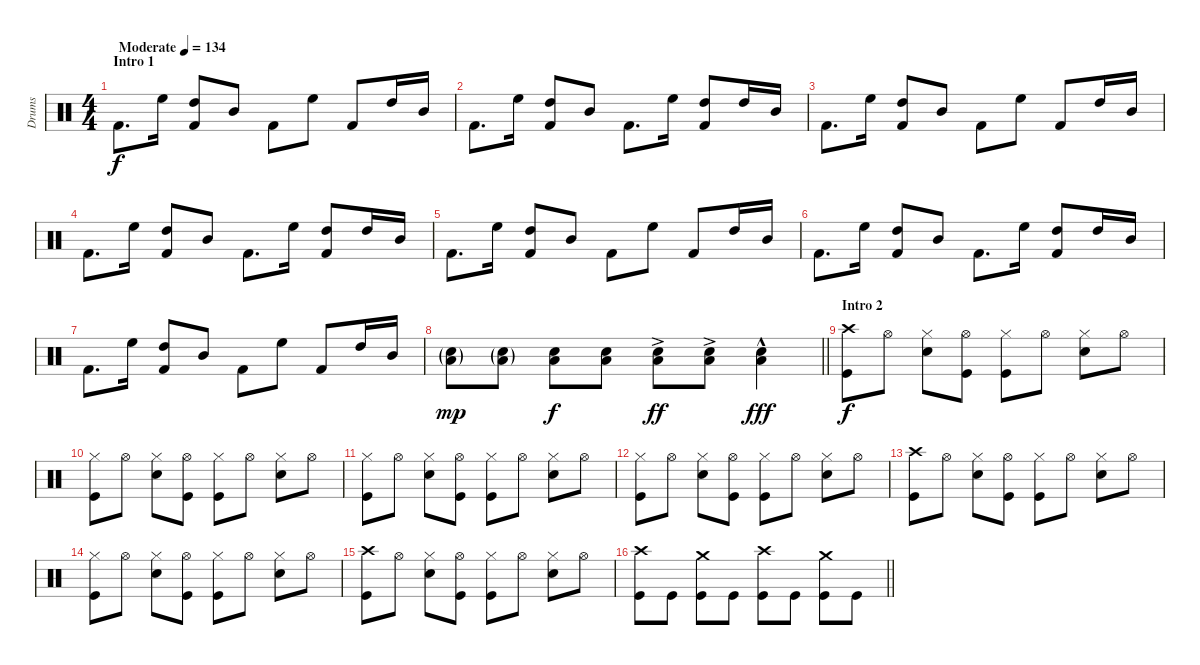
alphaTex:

\track ("Drums" "Drums") {instrument percussion}
\staff {score}
\articulation defaults
\ts (4 4)
\section ("" "Intro 1")
\tempo (134 "Moderate")
\clef neutral
\ks c "Kick (hit) 2".8{d dy f} "High Floor Tom (hit)".16
("High Tom (hit)" "Kick (hit) 2").8 "Mid Tom (hit)".8 "Kick (hit) 2".8 "High Floor Tom (hit)".8 "Kick (hit) 2".8 "High Tom (hit)".16 "Mid Tom (hit)".16 |
"Kick (hit) 2".8{d} "High Floor Tom (hit)".16 ("High Tom (hit)" "Kick (hit) 2").8 "Mid Tom (hit)".8 "Kick (hit) 2".8{d} "High Floor Tom (hit)".16 ("High Tom (hit)" "Kick (hit) 2").8 "High Tom (hit)".16 "Mid Tom (hit)".16 |
"Kick (hit) 2".8{d} "High Floor Tom (hit)".16 ("High Tom (hit)" "Kick (hit) 2").8 "Mid Tom (hit)".8 "Kick (hit) 2".8 "High Floor Tom (hit)".8 "Kick (hit) 2".8 "High Tom (hit)".16 "Mid Tom (hit)".16 |
"Kick (hit) 2".8{d} "High Floor Tom (hit)".16 ("High Tom (hit)" "Kick (hit) 2").8 "Mid Tom (hit)".8 "Kick (hit) 2".8{d} "High Floor Tom (hit)".16 ("High Tom (hit)" "Kick (hit) 2").8 "High Tom (hit)".16 "Mid Tom (hit)".16 |
"Kick (hit) 2".8{d} "High Floor Tom (hit)".16 ("High Tom (hit)" "Kick (hit) 2").8 "Mid Tom (hit)".8 "Kick (hit) 2".8 "High Floor Tom (hit)".8 "Kick (hit) 2".8 "High Tom (hit)".16 "Mid Tom (hit)".16 |
"Kick (hit) 2".8{d} "High Floor Tom (hit)".16 ("High Tom (hit)" "Kick (hit) 2").8 "Mid Tom (hit)".8 "Kick (hit) 2".8{d} "High Floor Tom (hit)".16 ("High Tom (hit)" "Kick (hit) 2").8 "High Tom (hit)".16 "Mid Tom (hit)".16 |
"Kick (hit) 2".8{d} "High Floor Tom (hit)".16 ("High Tom (hit)" "Kick (hit) 2").8 "Mid Tom (hit)".8 "Kick (hit) 2".8 "High Floor Tom (hit)".8 "Kick (hit) 2".8 "High Tom (hit)".16 "Mid Tom (hit)".16 |
\barLineRight lightlight
("Low Floor Tom (hit)"{g} "Snare (hit) 2"{g}).8{dy mp} ("Low Floor Tom (hit)"{g} "Snare (hit) 2"{g}).8 ("Low Floor Tom (hit)" "Snare (hit) 2").8{dy f} ("Low Floor Tom (hit)" "Snare (hit) 2").8 ("Low Floor Tom (hit)"{ac} "Snare (hit) 2"{ac}).8{dy ff} ("Low Floor Tom (hit)"{ac} "Snare (hit) 2"{ac}).8 ("Low Floor Tom (hit)"{hac} "Snare (hit) 2"{hac}).4{dy fff} |
\section ("" "Intro 2")
("Crash high (hit)" "Kick (hit)").8{dy f} "Hi-Hat (open)".8 ("Hi-Hat (closed)" "Snare (hit) 2").8 ("Hi-Hat (open)" "Kick (hit)").8 ("Hi-Hat (closed)" "Kick (hit)").8 "Hi-Hat (open)".8 ("Hi-Hat (closed)" "Snare (hit) 2").8 "Hi-Hat (open)".8 |
("Hi-Hat (closed)" "Kick (hit)").8 "Hi-Hat (open)".8 ("Hi-Hat (closed)" "Snare (hit) 2").8 ("Hi-Hat (open)" "Kick (hit)").8 ("Hi-Hat (closed)" "Kick (hit)").8 "Hi-Hat (open)".8 ("Hi-Hat (closed)" "Snare (hit) 2").8 "Hi-Hat (open)".8 |
("Hi-Hat (closed)" "Kick (hit)").8 "Hi-Hat (open)".8 ("Hi-Hat (closed)" "Snare (hit) 2").8 ("Hi-Hat (open)" "Kick (hit)").8 ("Hi-Hat (closed)" "Kick (hit)").8 "Hi-Hat (open)".8 ("Hi-Hat (closed)" "Snare (hit) 2").8 "Hi-Hat (open)".8 |
("Hi-Hat (closed)" "Kick (hit)").8 "Hi-Hat (open)".8 ("Hi-Hat (closed)" "Snare (hit) 2").8 ("Hi-Hat (open)" "Kick (hit)").8 ("Hi-Hat (closed)" "Kick (hit)").8 "Hi-Hat (open)".8 ("Hi-Hat (closed)" "Snare (hit) 2").8 "Hi-Hat (open)".8 |
("Crash high (hit)" "Kick (hit)").8 "Hi-Hat (open)".8 ("Hi-Hat (closed)" "Snare (hit) 2").8 ("Hi-Hat (open)" "Kick (hit)").8 ("Hi-Hat (closed)" "Kick (hit)").8 "Hi-Hat (open)".8 ("Hi-Hat (closed)" "Snare (hit) 2").8 "Hi-Hat (open)".8 |
("Hi-Hat (closed)" "Kick (hit)").8 "Hi-Hat (open)".8 ("Hi-Hat (closed)" "Snare (hit) 2").8 ("Hi-Hat (open)" "Kick (hit)").8 ("Hi-Hat (closed)" "Kick (hit)").8 "Hi-Hat (open)".8 ("Hi-Hat (closed)" "Snare (hit) 2").8 "Hi-Hat (open)".8 |
("Crash high (hit)" "Kick (hit)").8 "Hi-Hat (open)".8 ("Hi-Hat (closed)" "Snare (hit) 2").8 ("Hi-Hat (open)" "Kick (hit)").8 ("Hi-Hat (closed)" "Kick (hit)").8 "Hi-Hat (open)".8 ("Hi-Hat (closed)" "Snare (hit) 2").8 "Hi-Hat (open)".8 |
\barLineRight lightlight
("Crash high (hit)" "Kick (hit)").8 "Kick (hit)".8 ("Crash medium (hit)" "Kick (hit)").8 "Kick (hit)".8 ("Crash high (hit)" "Kick (hit)").8 "Kick (hit)".8 ("Crash medium (hit)" "Kick (hit)").8 "Kick (hit)".8
